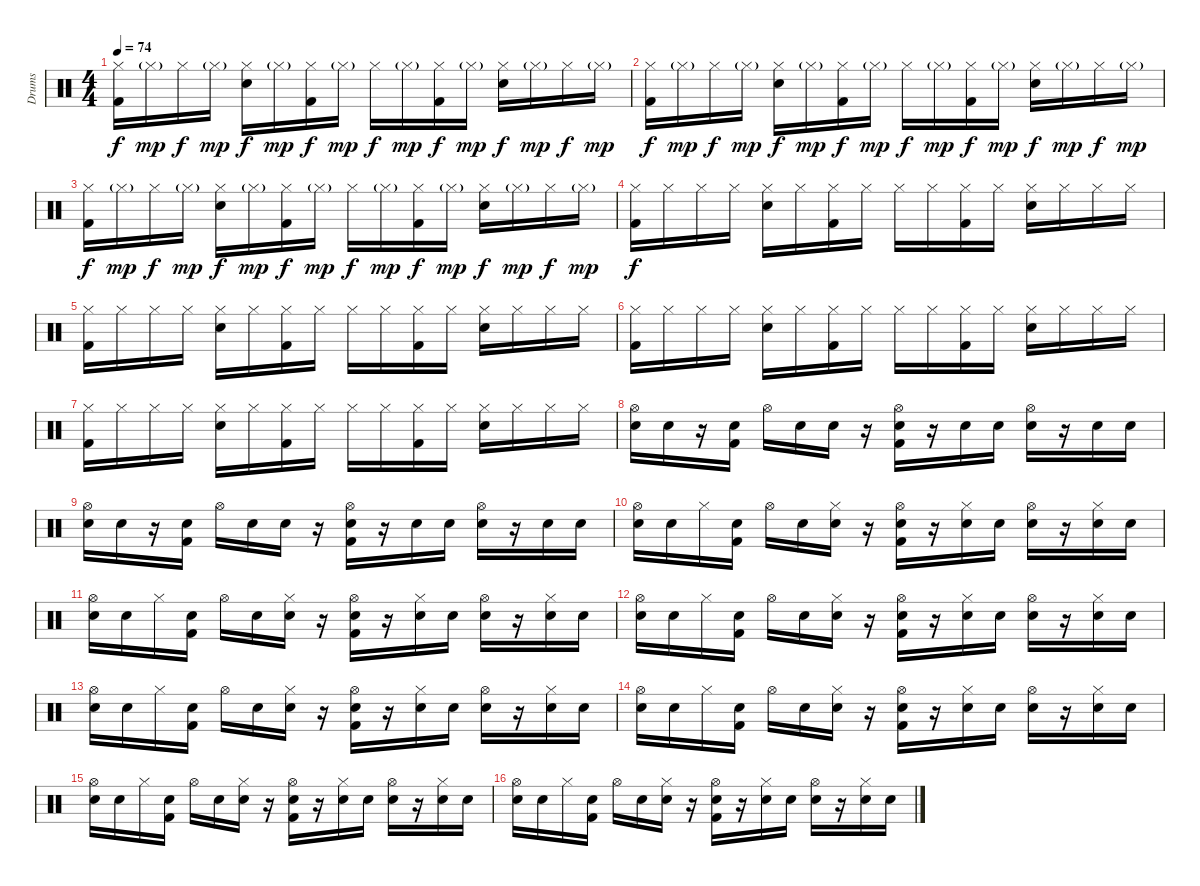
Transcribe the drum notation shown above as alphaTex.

\track ("Drums" "Drums") {instrument percussion}
\staff {score}
\articulation defaults
\ts (4 4)
\tempo 74
\clef neutral
\ks c
("Hi-Hat (closed)" "Kick (hit) 2").16{dy f} "Hi-Hat (closed)"{g}.16{dy mp} "Hi-Hat (closed)".16{dy f} "Hi-Hat (closed)"{g}.16{dy mp} ("Hi-Hat (closed)" "Electric Snare (hit)").16{dy f} "Hi-Hat (closed)"{g}.16{dy mp} ("Hi-Hat (closed)" "Kick (hit) 2").16{dy f} "Hi-Hat (closed)"{g}.16{dy mp} "Hi-Hat (closed)".16{dy f} "Hi-Hat (closed)"{g}.16{dy mp} ("Hi-Hat (closed)" "Kick (hit) 2").16{dy f} "Hi-Hat (closed)"{g}.16{dy mp} ("Hi-Hat (closed)" "Electric Snare (hit)").16{dy f} "Hi-Hat (closed)"{g}.16{dy mp} "Hi-Hat (closed)".16{dy f} "Hi-Hat (closed)"{g}.16{dy mp} |
("Hi-Hat (closed)" "Kick (hit) 2").16{dy f} "Hi-Hat (closed)"{g}.16{dy mp} "Hi-Hat (closed)".16{dy f} "Hi-Hat (closed)"{g}.16{dy mp} ("Hi-Hat (closed)" "Electric Snare (hit)").16{dy f} "Hi-Hat (closed)"{g}.16{dy mp} ("Hi-Hat (closed)" "Kick (hit) 2").16{dy f} "Hi-Hat (closed)"{g}.16{dy mp} "Hi-Hat (closed)".16{dy f} "Hi-Hat (closed)"{g}.16{dy mp} ("Hi-Hat (closed)" "Kick (hit) 2").16{dy f} "Hi-Hat (closed)"{g}.16{dy mp} ("Hi-Hat (closed)" "Electric Snare (hit)").16{dy f} "Hi-Hat (closed)"{g}.16{dy mp} "Hi-Hat (closed)".16{dy f} "Hi-Hat (closed)"{g}.16{dy mp} |
("Hi-Hat (closed)" "Kick (hit) 2").16{dy f} "Hi-Hat (closed)"{g}.16{dy mp} "Hi-Hat (closed)".16{dy f} "Hi-Hat (closed)"{g}.16{dy mp} ("Hi-Hat (closed)" "Electric Snare (hit)").16{dy f} "Hi-Hat (closed)"{g}.16{dy mp} ("Hi-Hat (closed)" "Kick (hit) 2").16{dy f} "Hi-Hat (closed)"{g}.16{dy mp} "Hi-Hat (closed)".16{dy f} "Hi-Hat (closed)"{g}.16{dy mp} ("Hi-Hat (closed)" "Kick (hit) 2").16{dy f} "Hi-Hat (closed)"{g}.16{dy mp} ("Hi-Hat (closed)" "Electric Snare (hit)").16{dy f} "Hi-Hat (closed)"{g}.16{dy mp} "Hi-Hat (closed)".16{dy f} "Hi-Hat (closed)"{g}.16{dy mp} |
("Hi-Hat (closed)" "Kick (hit) 2").16{dy f} "Hi-Hat (closed)".16 "Hi-Hat (closed)".16 "Hi-Hat (closed)".16 ("Hi-Hat (closed)" "Electric Snare (hit)").16 "Hi-Hat (closed)".16 ("Hi-Hat (closed)" "Kick (hit) 2").16 "Hi-Hat (closed)".16 "Hi-Hat (closed)".16 "Hi-Hat (closed)".16 ("Hi-Hat (closed)" "Kick (hit) 2").16 "Hi-Hat (closed)".16 ("Hi-Hat (closed)" "Electric Snare (hit)").16 "Hi-Hat (closed)".16 "Hi-Hat (closed)".16 "Hi-Hat (closed)".16 |
("Hi-Hat (closed)" "Kick (hit) 2").16 "Hi-Hat (closed)".16 "Hi-Hat (closed)".16 "Hi-Hat (closed)".16 ("Hi-Hat (closed)" "Electric Snare (hit)").16 "Hi-Hat (closed)".16 ("Hi-Hat (closed)" "Kick (hit) 2").16 "Hi-Hat (closed)".16 "Hi-Hat (closed)".16 "Hi-Hat (closed)".16 ("Hi-Hat (closed)" "Kick (hit) 2").16 "Hi-Hat (closed)".16 ("Hi-Hat (closed)" "Electric Snare (hit)").16 "Hi-Hat (closed)".16 "Hi-Hat (closed)".16 "Hi-Hat (closed)".16 |
("Hi-Hat (closed)" "Kick (hit) 2").16 "Hi-Hat (closed)".16 "Hi-Hat (closed)".16 "Hi-Hat (closed)".16 ("Hi-Hat (closed)" "Electric Snare (hit)").16 "Hi-Hat (closed)".16 ("Hi-Hat (closed)" "Kick (hit) 2").16 "Hi-Hat (closed)".16 "Hi-Hat (closed)".16 "Hi-Hat (closed)".16 ("Hi-Hat (closed)" "Kick (hit) 2").16 "Hi-Hat (closed)".16 ("Hi-Hat (closed)" "Electric Snare (hit)").16 "Hi-Hat (closed)".16 "Hi-Hat (closed)".16 "Hi-Hat (closed)".16 |
("Hi-Hat (closed)" "Kick (hit) 2").16 "Hi-Hat (closed)".16 "Hi-Hat (closed)".16 "Hi-Hat (closed)".16 ("Hi-Hat (closed)" "Electric Snare (hit)").16 "Hi-Hat (closed)".16 ("Hi-Hat (closed)" "Kick (hit) 2").16 "Hi-Hat (closed)".16 "Hi-Hat (closed)".16 "Hi-Hat (closed)".16 ("Hi-Hat (closed)" "Kick (hit) 2").16 "Hi-Hat (closed)".16 ("Hi-Hat (closed)" "Electric Snare (hit)").16 "Hi-Hat (closed)".16 "Hi-Hat (closed)".16 "Hi-Hat (closed)".16 |
("Hi-Hat (open)" "Snare (hit) 2").16{volume 12} "Snare (hit) 2".16 r.16 ("Electric Snare (hit)" "Kick (hit) 2").16 "Hi-Hat (open)".16 "Snare (hit) 2".16 "Snare (hit) 2".16 r.16 ("Hi-Hat (open)" "Electric Snare (hit)" "Kick (hit) 2").16 r.16 "Snare (hit) 2".16 "Snare (hit) 2".16 ("Hi-Hat (open)" "Snare (hit) 2").16 r.16 "Snare (hit) 2".16 "Snare (hit) 2".16 |
("Hi-Hat (open)" "Snare (hit) 2").16 "Snare (hit) 2".16 r.16 ("Electric Snare (hit)" "Kick (hit) 2").16 "Hi-Hat (open)".16 "Snare (hit) 2".16 "Snare (hit) 2".16 r.16 ("Hi-Hat (open)" "Electric Snare (hit)" "Kick (hit) 2").16 r.16 "Snare (hit) 2".16 "Snare (hit) 2".16 ("Hi-Hat (open)" "Snare (hit) 2").16 r.16 "Snare (hit) 2".16 "Snare (hit) 2".16 |
("Hi-Hat (open)" "Snare (hit) 2").16 "Snare (hit) 2".16 "Hi-Hat (closed)".16 ("Electric Snare (hit)" "Kick (hit) 2").16 "Hi-Hat (open)".16 "Snare (hit) 2".16 ("Hi-Hat (closed)" "Snare (hit) 2").16 r.16 ("Hi-Hat (open)" "Electric Snare (hit)" "Kick (hit) 2").16 r.16 ("Hi-Hat (closed)" "Snare (hit) 2").16 "Snare (hit) 2".16 ("Hi-Hat (open)" "Snare (hit) 2").16 r.16 ("Hi-Hat (closed)" "Snare (hit) 2").16 "Snare (hit) 2".16 |
("Hi-Hat (open)" "Snare (hit) 2").16 "Snare (hit) 2".16 "Hi-Hat (closed)".16 ("Electric Snare (hit)" "Kick (hit) 2").16 "Hi-Hat (open)".16 "Snare (hit) 2".16 ("Hi-Hat (closed)" "Snare (hit) 2").16 r.16 ("Hi-Hat (open)" "Electric Snare (hit)" "Kick (hit) 2").16 r.16 ("Hi-Hat (closed)" "Snare (hit) 2").16 "Snare (hit) 2".16 ("Hi-Hat (open)" "Snare (hit) 2").16 r.16 ("Hi-Hat (closed)" "Snare (hit) 2").16 "Snare (hit) 2".16 |
("Hi-Hat (open)" "Snare (hit) 2").16 "Snare (hit) 2".16 "Hi-Hat (closed)".16 ("Electric Snare (hit)" "Kick (hit) 2").16 "Hi-Hat (open)".16 "Snare (hit) 2".16 ("Hi-Hat (closed)" "Snare (hit) 2").16 r.16 ("Hi-Hat (open)" "Electric Snare (hit)" "Kick (hit) 2").16 r.16 ("Hi-Hat (closed)" "Snare (hit) 2").16 "Snare (hit) 2".16 ("Hi-Hat (open)" "Snare (hit) 2").16 r.16 ("Hi-Hat (closed)" "Snare (hit) 2").16 "Snare (hit) 2".16 |
("Hi-Hat (open)" "Snare (hit) 2").16 "Snare (hit) 2".16 "Hi-Hat (closed)".16 ("Electric Snare (hit)" "Kick (hit) 2").16 "Hi-Hat (open)".16 "Snare (hit) 2".16 ("Hi-Hat (closed)" "Snare (hit) 2").16 r.16 ("Hi-Hat (open)" "Electric Snare (hit)" "Kick (hit) 2").16 r.16 ("Hi-Hat (closed)" "Snare (hit) 2").16 "Snare (hit) 2".16 ("Hi-Hat (open)" "Snare (hit) 2").16 r.16 ("Hi-Hat (closed)" "Snare (hit) 2").16 "Snare (hit) 2".16 |
("Hi-Hat (open)" "Snare (hit) 2").16 "Snare (hit) 2".16 "Hi-Hat (closed)".16 ("Electric Snare (hit)" "Kick (hit) 2").16 "Hi-Hat (open)".16 "Snare (hit) 2".16 ("Hi-Hat (closed)" "Snare (hit) 2").16 r.16 ("Hi-Hat (open)" "Electric Snare (hit)" "Kick (hit) 2").16 r.16 ("Hi-Hat (closed)" "Snare (hit) 2").16 "Snare (hit) 2".16 ("Hi-Hat (open)" "Snare (hit) 2").16 r.16 ("Hi-Hat (closed)" "Snare (hit) 2").16 "Snare (hit) 2".16 |
("Hi-Hat (open)" "Snare (hit) 2").16 "Snare (hit) 2".16 "Hi-Hat (closed)".16 ("Electric Snare (hit)" "Kick (hit) 2").16 "Hi-Hat (open)".16 "Snare (hit) 2".16 ("Hi-Hat (closed)" "Snare (hit) 2").16 r.16 ("Hi-Hat (open)" "Electric Snare (hit)" "Kick (hit) 2").16 r.16 ("Hi-Hat (closed)" "Snare (hit) 2").16 "Snare (hit) 2".16 ("Hi-Hat (open)" "Snare (hit) 2").16 r.16 ("Hi-Hat (closed)" "Snare (hit) 2").16 "Snare (hit) 2".16 |
("Hi-Hat (open)" "Snare (hit) 2").16 "Snare (hit) 2".16 "Hi-Hat (closed)".16 ("Electric Snare (hit)" "Kick (hit) 2").16 "Hi-Hat (open)".16 "Snare (hit) 2".16 ("Hi-Hat (closed)" "Snare (hit) 2").16 r.16 ("Hi-Hat (open)" "Electric Snare (hit)" "Kick (hit) 2").16 r.16 ("Hi-Hat (closed)" "Snare (hit) 2").16 "Snare (hit) 2".16 ("Hi-Hat (open)" "Snare (hit) 2").16 r.16 ("Hi-Hat (closed)" "Snare (hit) 2").16 "Snare (hit) 2".16
